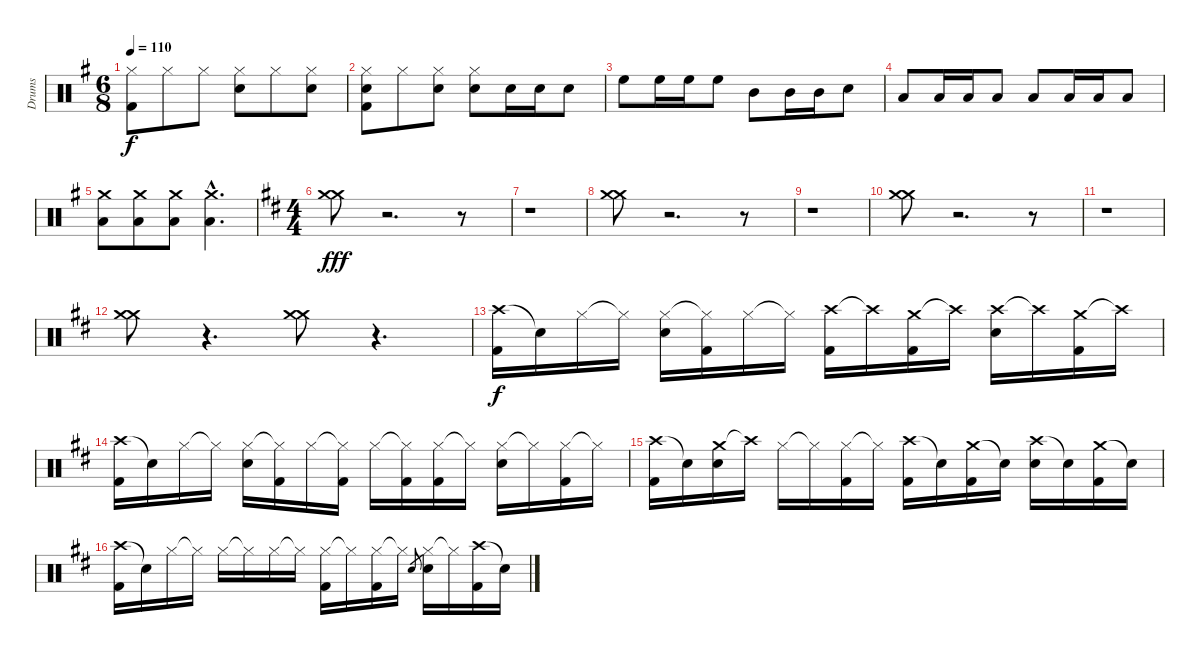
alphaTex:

\track ("Drums" "Drums") {instrument percussion}
\staff {score}
\articulation defaults
\ts (6 8)
\tempo 110
\clef neutral
\ks g
("Hi-Hat (closed)" "Kick (hit) 2").8{dy f} "Hi-Hat (closed)".8 "Hi-Hat (closed)".8 ("Hi-Hat (closed)" "Snare (hit) 2").8 "Hi-Hat (closed)".8 ("Hi-Hat (closed)" "Snare (hit) 2").8 |
("Hi-Hat (closed)" "Snare (hit) 2" "Kick (hit) 2").8 "Hi-Hat (closed)".8 ("Hi-Hat (closed)" "Snare (hit) 2").8 ("Hi-Hat (closed)" "Snare (hit) 2").8 "Snare (hit) 2".16 "Snare (hit) 2".16 "Snare (hit) 2".8 |
"High Floor Tom (hit)".8 "High Floor Tom (hit)".16 "High Floor Tom (hit)".16 "High Floor Tom (hit)".8 "Mid Tom (hit)".8 "Mid Tom (hit)".16 "Mid Tom (hit)".16 "Snare (hit)".8 |
"Low Tom (hit)".8 "Low Tom (hit)".16 "Low Tom (hit)".16 "Low Tom (hit)".8 "Low Floor Tom (hit)".8 "Low Floor Tom (hit)".16 "Low Floor Tom (hit)".16 "Low Floor Tom (hit)".8 |
("Crash medium (hit)" "Low Floor Tom (hit)").8 ("Crash medium (hit)" "Low Floor Tom (hit)").8 ("Crash medium (hit)" "Low Floor Tom (hit)").8 ("Crash medium (hit)"{hac} "Low Floor Tom (hit)"{hac}).4{d} |
\ts (4 4)
\ks d
("Crash medium (hit)" "Crash medium (hit)").8{dy fff volume 4} r.2{d} r.8 |
r.1 |
("Crash medium (hit)" "Crash medium (hit)").8{volume 4} r.2{d} r.8 |
r.1 |
("Crash medium (hit)" "Crash medium (hit)").8{volume 4} r.2{d} r.8 |
r.1 |
("Crash medium (hit)" "Crash medium (hit)").8{volume 4} r.4{d} ("Crash medium (hit)" "Crash medium (hit)").8{volume 4} r.4{d} |
("Crash high (hit)" "Kick (hit) 2").16{dy f volume 8} "Snare (hit)"{t}.16 "Hi-Hat (closed)".16 "Hi-Hat (closed)"{t}.16 ("Hi-Hat (closed)" "Snare (hit) 2").16 ("Hi-Hat (closed)"{t} "Kick (hit) 2").16 "Hi-Hat (closed)".16 "Hi-Hat (closed)"{t}.16 ("Crash high (hit)" "Kick (hit) 2").16 "Crash high (hit)"{t}.16 ("Crash medium (hit)" "Kick (hit) 2").16 "Crash high (hit)"{t}.16 ("Crash high (hit)" "Snare (hit) 2").16 "Crash high (hit)"{t}.16 ("Crash medium (hit)" "Kick (hit) 2").16 "Crash high (hit)"{t}.16 |
("Crash high (hit)" "Kick (hit) 2").16 "Snare (hit)"{t}.16 "Hi-Hat (closed)".16 "Hi-Hat (closed)"{t}.16 ("Hi-Hat (closed)" "Snare (hit) 2").16 ("Hi-Hat (closed)"{t} "Kick (hit) 2").16 "Hi-Hat (closed)".16 ("Hi-Hat (closed)"{t} "Kick (hit) 2").16 "Hi-Hat (closed)".16 ("Hi-Hat (closed)"{t} "Kick (hit) 2").16 ("Hi-Hat (closed)" "Kick (hit) 2").16 "Hi-Hat (closed)"{t}.16 ("Hi-Hat (closed)" "Snare (hit) 2").16 "Hi-Hat (closed)"{t}.16 ("Hi-Hat (closed)" "Kick (hit) 2").16 "Hi-Hat (closed)"{t}.16 |
("Crash high (hit)" "Kick (hit) 2").16 "Snare (hit)"{t}.16 ("Crash medium (hit)" "Snare (hit) 2").16 "Crash high (hit)"{t}.16 "Hi-Hat (closed)".16 "Hi-Hat (closed)"{t}.16 ("Hi-Hat (closed)" "Kick (hit) 2").16 "Hi-Hat (closed)"{t}.16 ("Crash high (hit)" "Kick (hit) 2").16 "Snare (hit)"{t}.16 ("Crash medium (hit)" "Kick (hit) 2").16 "Snare (hit)"{t}.16 ("Crash high (hit)" "Snare (hit) 2").16 "Snare (hit)"{t}.16 ("Crash medium (hit)" "Kick (hit) 2").16 "Snare (hit)"{t}.16 |
("Crash high (hit)" "Kick (hit) 2").16 "Snare (hit)"{t}.16 "Hi-Hat (closed)".16 "Hi-Hat (closed)"{t}.16 "Hi-Hat (closed)".16 "Hi-Hat (closed)"{t}.16 "Hi-Hat (closed)".16 "Hi-Hat (closed)"{t}.16 ("Hi-Hat (closed)" "Kick (hit) 2").16 "Hi-Hat (closed)"{t}.16 ("Hi-Hat (closed)" "Kick (hit) 2").16 "Hi-Hat (closed)"{t}.16 "Snare (hit) 2".8{gr} ("Hi-Hat (closed)" "Snare (hit) 2").16 "Hi-Hat (closed)"{t}.16 ("Crash high (hit)" "Kick (hit) 2").16 "Snare (hit)"{t}.16
